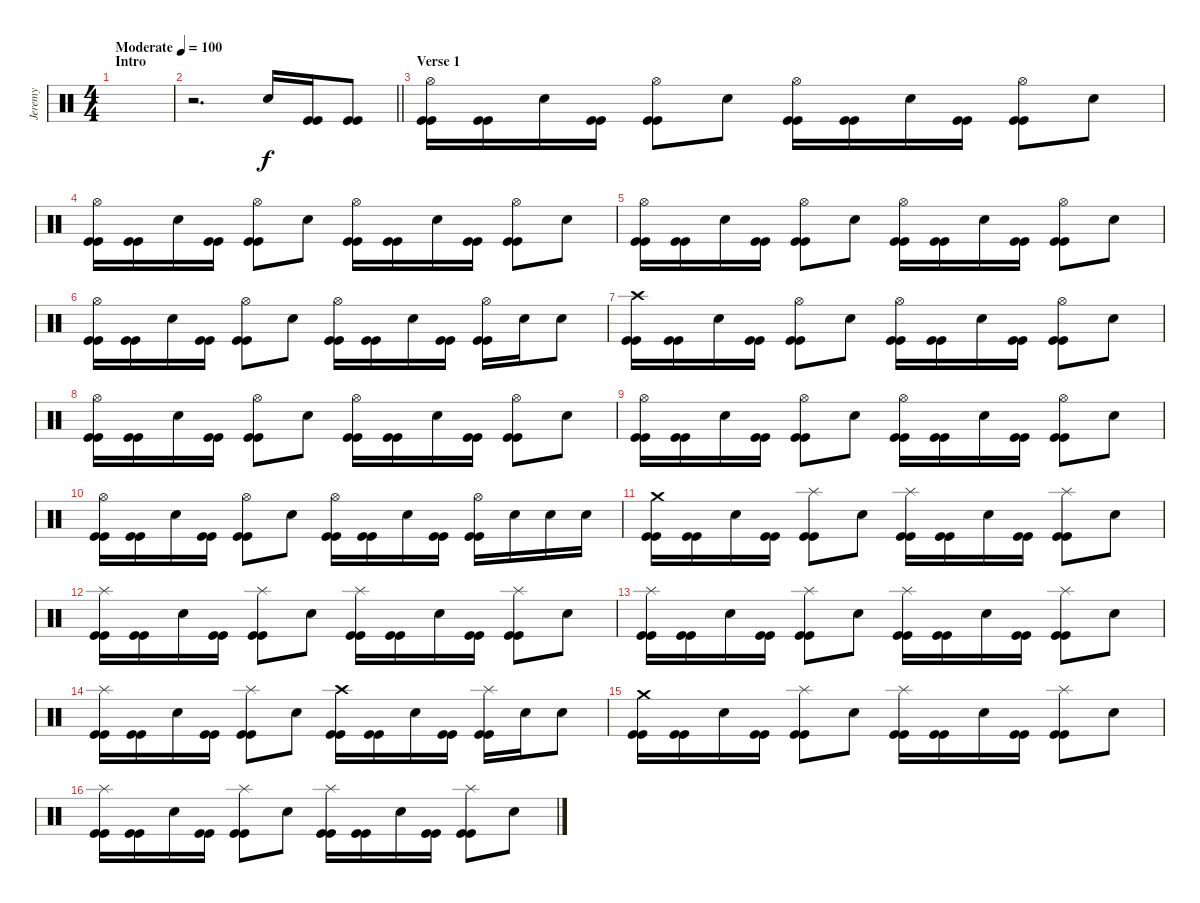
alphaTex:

\track ("Jeremy" "Jeremy") {instrument percussion}
\staff {score}
\articulation defaults
\ts (4 4)
\section ("" "Intro")
\tempo (100 "Moderate")
\clef neutral
\ks c
|
\barLineRight lightlight
r.2{d} "Electric Snare (hit)".16 ("Kick (hit)" "Kick (hit)").16 ("Kick (hit)" "Kick (hit)").8 |
\section ("" "Verse 1")
("Hi-Hat (open)" "Kick (hit)" "Kick (hit)").16{dy f} ("Kick (hit)" "Kick (hit)").16 "Electric Snare (hit)".16 ("Kick (hit)" "Kick (hit)").16 ("Hi-Hat (open)" "Kick (hit)" "Kick (hit)").8 "Electric Snare (hit)".8 ("Hi-Hat (open)" "Kick (hit)" "Kick (hit)").16 ("Kick (hit)" "Kick (hit)").16 "Electric Snare (hit)".16 ("Kick (hit)" "Kick (hit)").16 ("Hi-Hat (open)" "Kick (hit)" "Kick (hit)").8 "Electric Snare (hit)".8 |
("Hi-Hat (open)" "Kick (hit)" "Kick (hit)").16 ("Kick (hit)" "Kick (hit)").16 "Electric Snare (hit)".16 ("Kick (hit)" "Kick (hit)").16 ("Hi-Hat (open)" "Kick (hit)" "Kick (hit)").8 "Electric Snare (hit)".8 ("Hi-Hat (open)" "Kick (hit)" "Kick (hit)").16 ("Kick (hit)" "Kick (hit)").16 "Electric Snare (hit)".16 ("Kick (hit)" "Kick (hit)").16 ("Hi-Hat (open)" "Kick (hit)" "Kick (hit)").8 "Electric Snare (hit)".8 |
("Hi-Hat (open)" "Kick (hit)" "Kick (hit)").16 ("Kick (hit)" "Kick (hit)").16 "Electric Snare (hit)".16 ("Kick (hit)" "Kick (hit)").16 ("Hi-Hat (open)" "Kick (hit)" "Kick (hit)").8 "Electric Snare (hit)".8 ("Hi-Hat (open)" "Kick (hit)" "Kick (hit)").16 ("Kick (hit)" "Kick (hit)").16 "Electric Snare (hit)".16 ("Kick (hit)" "Kick (hit)").16 ("Hi-Hat (open)" "Kick (hit)" "Kick (hit)").8 "Electric Snare (hit)".8 |
("Hi-Hat (open)" "Kick (hit)" "Kick (hit)").16 ("Kick (hit)" "Kick (hit)").16 "Electric Snare (hit)".16 ("Kick (hit)" "Kick (hit)").16 ("Hi-Hat (open)" "Kick (hit)" "Kick (hit)").8 "Electric Snare (hit)".8 ("Hi-Hat (open)" "Kick (hit)" "Kick (hit)").16 ("Kick (hit)" "Kick (hit)").16 "Electric Snare (hit)".16 ("Kick (hit)" "Kick (hit)").16 ("Hi-Hat (open)" "Kick (hit)" "Kick (hit)").16 "Electric Snare (hit)".16 "Electric Snare (hit)".8 |
("Crash high (hit)" "Kick (hit)" "Kick (hit)").16 ("Kick (hit)" "Kick (hit)").16 "Electric Snare (hit)".16 ("Kick (hit)" "Kick (hit)").16 ("Hi-Hat (open)" "Kick (hit)" "Kick (hit)").8 "Electric Snare (hit)".8 ("Hi-Hat (open)" "Kick (hit)" "Kick (hit)").16 ("Kick (hit)" "Kick (hit)").16 "Electric Snare (hit)".16 ("Kick (hit)" "Kick (hit)").16 ("Hi-Hat (open)" "Kick (hit)" "Kick (hit)").8 "Electric Snare (hit)".8 |
("Hi-Hat (open)" "Kick (hit)" "Kick (hit)").16 ("Kick (hit)" "Kick (hit)").16 "Electric Snare (hit)".16 ("Kick (hit)" "Kick (hit)").16 ("Hi-Hat (open)" "Kick (hit)" "Kick (hit)").8 "Electric Snare (hit)".8 ("Hi-Hat (open)" "Kick (hit)" "Kick (hit)").16 ("Kick (hit)" "Kick (hit)").16 "Electric Snare (hit)".16 ("Kick (hit)" "Kick (hit)").16 ("Hi-Hat (open)" "Kick (hit)" "Kick (hit)").8 "Electric Snare (hit)".8 |
("Hi-Hat (open)" "Kick (hit)" "Kick (hit)").16 ("Kick (hit)" "Kick (hit)").16 "Electric Snare (hit)".16 ("Kick (hit)" "Kick (hit)").16 ("Hi-Hat (open)" "Kick (hit)" "Kick (hit)").8 "Electric Snare (hit)".8 ("Hi-Hat (open)" "Kick (hit)" "Kick (hit)").16 ("Kick (hit)" "Kick (hit)").16 "Electric Snare (hit)".16 ("Kick (hit)" "Kick (hit)").16 ("Hi-Hat (open)" "Kick (hit)" "Kick (hit)").8 "Electric Snare (hit)".8 |
("Hi-Hat (open)" "Kick (hit)" "Kick (hit)").16 ("Kick (hit)" "Kick (hit)").16 "Electric Snare (hit)".16 ("Kick (hit)" "Kick (hit)").16 ("Hi-Hat (open)" "Kick (hit)" "Kick (hit)").8 "Electric Snare (hit)".8 ("Hi-Hat (open)" "Kick (hit)" "Kick (hit)").16 ("Kick (hit)" "Kick (hit)").16 "Electric Snare (hit)".16 ("Kick (hit)" "Kick (hit)").16 ("Hi-Hat (open)" "Kick (hit)" "Kick (hit)").16 "Electric Snare (hit)".16 "Electric Snare (hit)".16 "Electric Snare (hit)".16 |
("Crash medium (hit)" "Kick (hit)" "Kick (hit)").16 ("Kick (hit)" "Kick (hit)").16 "Electric Snare (hit)".16 ("Kick (hit)" "Kick (hit)").16 ("Splash (hit)" "Kick (hit)" "Kick (hit)").8 "Electric Snare (hit)".8 ("Splash (hit)" "Kick (hit)" "Kick (hit)").16 ("Kick (hit)" "Kick (hit)").16 "Electric Snare (hit)".16 ("Kick (hit)" "Kick (hit)").16 ("Splash (hit)" "Kick (hit)" "Kick (hit)").8 "Electric Snare (hit)".8 |
("Splash (hit)" "Kick (hit)" "Kick (hit)").16 ("Kick (hit)" "Kick (hit)").16 "Electric Snare (hit)".16 ("Kick (hit)" "Kick (hit)").16 ("Splash (hit)" "Kick (hit)" "Kick (hit)").8 "Electric Snare (hit)".8 ("Splash (hit)" "Kick (hit)" "Kick (hit)").16 ("Kick (hit)" "Kick (hit)").16 "Electric Snare (hit)".16 ("Kick (hit)" "Kick (hit)").16 ("Splash (hit)" "Kick (hit)" "Kick (hit)").8 "Electric Snare (hit)".8 |
("Splash (hit)" "Kick (hit)" "Kick (hit)").16 ("Kick (hit)" "Kick (hit)").16 "Electric Snare (hit)".16 ("Kick (hit)" "Kick (hit)").16 ("Splash (hit)" "Kick (hit)" "Kick (hit)").8 "Electric Snare (hit)".8 ("Splash (hit)" "Kick (hit)" "Kick (hit)").16 ("Kick (hit)" "Kick (hit)").16 "Electric Snare (hit)".16 ("Kick (hit)" "Kick (hit)").16 ("Splash (hit)" "Kick (hit)" "Kick (hit)").8 "Electric Snare (hit)".8 |
("Splash (hit)" "Kick (hit)" "Kick (hit)").16 ("Kick (hit)" "Kick (hit)").16 "Electric Snare (hit)".16 ("Kick (hit)" "Kick (hit)").16 ("Splash (hit)" "Kick (hit)" "Kick (hit)").8 "Electric Snare (hit)".8 ("Crash high (hit)" "Kick (hit)" "Kick (hit)").16 ("Kick (hit)" "Kick (hit)").16 "Electric Snare (hit)".16 ("Kick (hit)" "Kick (hit)").16 ("Splash (hit)" "Kick (hit)" "Kick (hit)").16 "Electric Snare (hit)".16 "Electric Snare (hit)".8 |
("Crash medium (hit)" "Kick (hit)" "Kick (hit)").16 ("Kick (hit)" "Kick (hit)").16 "Electric Snare (hit)".16 ("Kick (hit)" "Kick (hit)").16 ("Splash (hit)" "Kick (hit)" "Kick (hit)").8 "Electric Snare (hit)".8 ("Splash (hit)" "Kick (hit)" "Kick (hit)").16 ("Kick (hit)" "Kick (hit)").16 "Electric Snare (hit)".16 ("Kick (hit)" "Kick (hit)").16 ("Splash (hit)" "Kick (hit)" "Kick (hit)").8 "Electric Snare (hit)".8 |
("Splash (hit)" "Kick (hit)" "Kick (hit)").16 ("Kick (hit)" "Kick (hit)").16 "Electric Snare (hit)".16 ("Kick (hit)" "Kick (hit)").16 ("Splash (hit)" "Kick (hit)" "Kick (hit)").8 "Electric Snare (hit)".8 ("Splash (hit)" "Kick (hit)" "Kick (hit)").16 ("Kick (hit)" "Kick (hit)").16 "Electric Snare (hit)".16 ("Kick (hit)" "Kick (hit)").16 ("Splash (hit)" "Kick (hit)" "Kick (hit)").8 "Electric Snare (hit)".8
